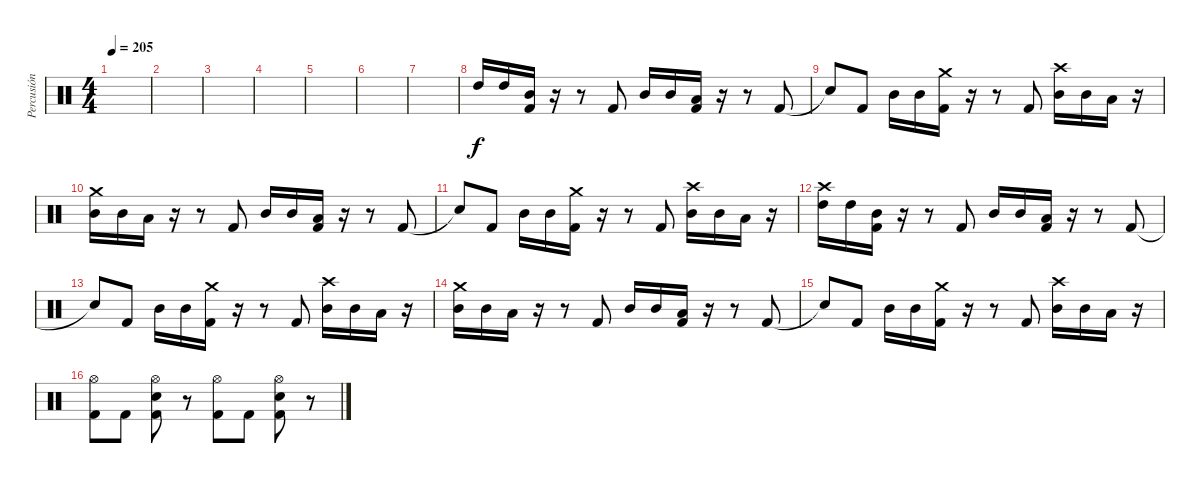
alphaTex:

\track ("Percusión" "Percusión") {instrument percussion}
\staff {score}
\articulation defaults
\ts (4 4)
\tempo 205
\clef neutral
\ks c
|
|
|
|
|
|
|
"High Tom (hit)".16 "High Tom (hit)".16 ("Mid Tom (hit)" "Kick (hit) 2").16 r.16 r.8 "Kick (hit) 2".8 "Mid Tom (hit)".16 "Mid Tom (hit)".16 ("Low Tom (hit)" "Kick (hit) 2").16 r.16 r.8 "Kick (hit) 2".8 |
"Snare (hit) 2"{t}.8 "Kick (hit) 2".8 "Mid Tom (hit)".16 "Mid Tom (hit)".16 ("Crash medium (hit)" "Kick (hit) 2").16 r.16 r.8 "Kick (hit) 2".8 ("Crash high (hit)" "Mid Tom (hit)").16 "Mid Tom (hit)".16 "Low Tom (hit)".16 r.16 |
("Crash medium (hit)" "Mid Tom (hit)").16 "Mid Tom (hit)".16 "Low Tom (hit)".16 r.16 r.8 "Kick (hit) 2".8 "Mid Tom (hit)".16 "Mid Tom (hit)".16 ("Low Tom (hit)" "Kick (hit) 2").16 r.16 r.8 "Kick (hit) 2".8 |
"Snare (hit) 2"{t}.8 "Kick (hit) 2".8 "Mid Tom (hit)".16 "Mid Tom (hit)".16 ("Crash medium (hit)" "Kick (hit) 2").16 r.16 r.8 "Kick (hit) 2".8 ("Crash high (hit)" "Mid Tom (hit)").16 "Mid Tom (hit)".16 "Low Tom (hit)".16 r.16 |
("Crash high (hit)" "High Tom (hit)").16 "High Tom (hit)".16 ("Mid Tom (hit)" "Kick (hit) 2").16 r.16 r.8 "Kick (hit) 2".8 "Mid Tom (hit)".16 "Mid Tom (hit)".16 ("Low Tom (hit)" "Kick (hit) 2").16 r.16 r.8 "Kick (hit) 2".8 |
"Snare (hit) 2"{t}.8 "Kick (hit) 2".8 "Mid Tom (hit)".16 "Mid Tom (hit)".16 ("Crash medium (hit)" "Kick (hit) 2").16 r.16 r.8 "Kick (hit) 2".8 ("Crash high (hit)" "Mid Tom (hit)").16 "Mid Tom (hit)".16 "Low Tom (hit)".16 r.16 |
("Crash medium (hit)" "Mid Tom (hit)").16 "Mid Tom (hit)".16 "Low Tom (hit)".16 r.16 r.8 "Kick (hit) 2".8 "Mid Tom (hit)".16 "Mid Tom (hit)".16 ("Low Tom (hit)" "Kick (hit) 2").16 r.16 r.8 "Kick (hit) 2".8 |
"Snare (hit) 2"{t}.8 "Kick (hit) 2".8 "Mid Tom (hit)".16 "Mid Tom (hit)".16 ("Crash medium (hit)" "Kick (hit) 2").16 r.16 r.8 "Kick (hit) 2".8 ("Crash high (hit)" "Mid Tom (hit)").16 "Mid Tom (hit)".16 "Low Tom (hit)".16 r.16 |
("Hi-Hat (open)" "Kick (hit) 2").8 "Kick (hit) 2".8 ("Hi-Hat (open)" "Snare (hit) 2" "Kick (hit) 2").8 r.8 ("Hi-Hat (open)" "Kick (hit) 2").8 "Kick (hit) 2".8 ("Hi-Hat (open)" "Snare (hit) 2" "Kick (hit) 2").8 r.8
